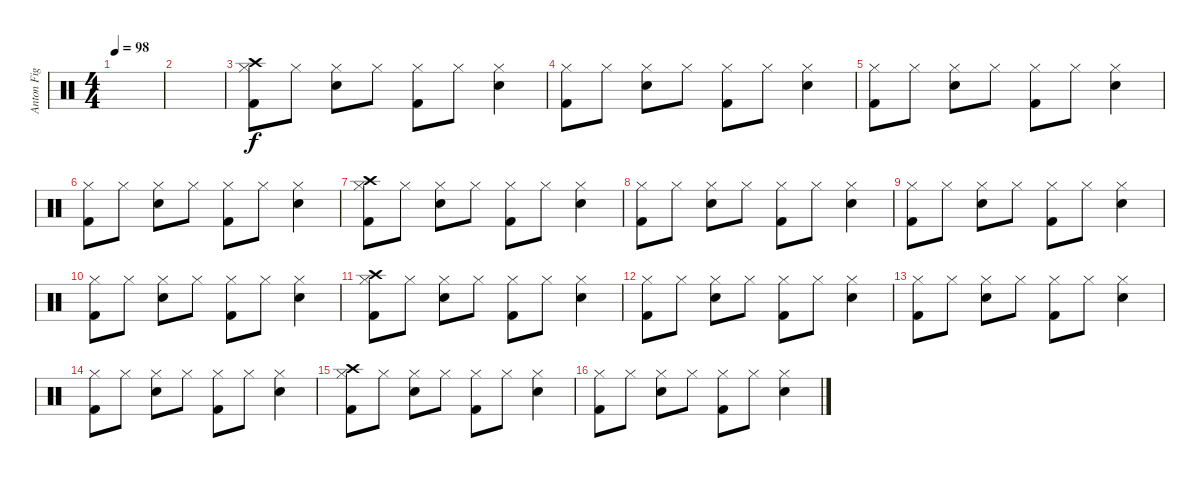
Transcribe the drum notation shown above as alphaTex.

\track ("Anton Fig" "Anton Fig") {instrument percussion}
\staff {score}
\articulation defaults
\ts (4 4)
\tempo 98
\clef neutral
\ks c
|
|
("Hi-Hat (closed)" "Crash high (hit)" "Kick (hit) 2").8 "Hi-Hat (closed)".8 ("Hi-Hat (closed)" "Snare (hit) 2").8 "Hi-Hat (closed)".8 ("Hi-Hat (closed)" "Kick (hit) 2").8 "Hi-Hat (closed)".8 ("Hi-Hat (closed)" "Snare (hit) 2").4 |
("Hi-Hat (closed)" "Kick (hit) 2").8 "Hi-Hat (closed)".8 ("Hi-Hat (closed)" "Snare (hit) 2").8 "Hi-Hat (closed)".8 ("Hi-Hat (closed)" "Kick (hit) 2").8 "Hi-Hat (closed)".8 ("Hi-Hat (closed)" "Snare (hit) 2").4 |
("Hi-Hat (closed)" "Kick (hit) 2").8 "Hi-Hat (closed)".8 ("Hi-Hat (closed)" "Snare (hit) 2").8 "Hi-Hat (closed)".8 ("Hi-Hat (closed)" "Kick (hit) 2").8 "Hi-Hat (closed)".8 ("Hi-Hat (closed)" "Snare (hit) 2").4 |
("Hi-Hat (closed)" "Kick (hit) 2").8 "Hi-Hat (closed)".8 ("Hi-Hat (closed)" "Snare (hit) 2").8 "Hi-Hat (closed)".8 ("Hi-Hat (closed)" "Kick (hit) 2").8 "Hi-Hat (closed)".8 ("Hi-Hat (closed)" "Snare (hit) 2").4 |
("Hi-Hat (closed)" "Crash high (hit)" "Kick (hit) 2").8 "Hi-Hat (closed)".8 ("Hi-Hat (closed)" "Snare (hit) 2").8 "Hi-Hat (closed)".8 ("Hi-Hat (closed)" "Kick (hit) 2").8 "Hi-Hat (closed)".8 ("Hi-Hat (closed)" "Snare (hit) 2").4 |
("Hi-Hat (closed)" "Kick (hit) 2").8 "Hi-Hat (closed)".8 ("Hi-Hat (closed)" "Snare (hit) 2").8 "Hi-Hat (closed)".8 ("Hi-Hat (closed)" "Kick (hit) 2").8 "Hi-Hat (closed)".8 ("Hi-Hat (closed)" "Snare (hit) 2").4 |
("Hi-Hat (closed)" "Kick (hit) 2").8 "Hi-Hat (closed)".8 ("Hi-Hat (closed)" "Snare (hit) 2").8 "Hi-Hat (closed)".8 ("Hi-Hat (closed)" "Kick (hit) 2").8 "Hi-Hat (closed)".8 ("Hi-Hat (closed)" "Snare (hit) 2").4 |
("Hi-Hat (closed)" "Kick (hit) 2").8 "Hi-Hat (closed)".8 ("Hi-Hat (closed)" "Snare (hit) 2").8 "Hi-Hat (closed)".8 ("Hi-Hat (closed)" "Kick (hit) 2").8 "Hi-Hat (closed)".8 ("Hi-Hat (closed)" "Snare (hit) 2").4 |
("Hi-Hat (closed)" "Crash high (hit)" "Kick (hit) 2").8 "Hi-Hat (closed)".8 ("Hi-Hat (closed)" "Snare (hit) 2").8 "Hi-Hat (closed)".8 ("Hi-Hat (closed)" "Kick (hit) 2").8 "Hi-Hat (closed)".8 ("Hi-Hat (closed)" "Snare (hit) 2").4 |
("Hi-Hat (closed)" "Kick (hit) 2").8 "Hi-Hat (closed)".8 ("Hi-Hat (closed)" "Snare (hit) 2").8 "Hi-Hat (closed)".8 ("Hi-Hat (closed)" "Kick (hit) 2").8 "Hi-Hat (closed)".8 ("Hi-Hat (closed)" "Snare (hit) 2").4 |
("Hi-Hat (closed)" "Kick (hit) 2").8 "Hi-Hat (closed)".8 ("Hi-Hat (closed)" "Snare (hit) 2").8 "Hi-Hat (closed)".8 ("Hi-Hat (closed)" "Kick (hit) 2").8 "Hi-Hat (closed)".8 ("Hi-Hat (closed)" "Snare (hit) 2").4 |
("Hi-Hat (closed)" "Kick (hit) 2").8 "Hi-Hat (closed)".8 ("Hi-Hat (closed)" "Snare (hit) 2").8 "Hi-Hat (closed)".8 ("Hi-Hat (closed)" "Kick (hit) 2").8 "Hi-Hat (closed)".8 ("Hi-Hat (closed)" "Snare (hit) 2").4 |
("Hi-Hat (closed)" "Crash high (hit)" "Kick (hit) 2").8 "Hi-Hat (closed)".8 ("Hi-Hat (closed)" "Snare (hit) 2").8 "Hi-Hat (closed)".8 ("Hi-Hat (closed)" "Kick (hit) 2").8 "Hi-Hat (closed)".8 ("Hi-Hat (closed)" "Snare (hit) 2").4 |
("Hi-Hat (closed)" "Kick (hit) 2").8 "Hi-Hat (closed)".8 ("Hi-Hat (closed)" "Snare (hit) 2").8 "Hi-Hat (closed)".8 ("Hi-Hat (closed)" "Kick (hit) 2").8 "Hi-Hat (closed)".8 ("Hi-Hat (closed)" "Snare (hit) 2").4
